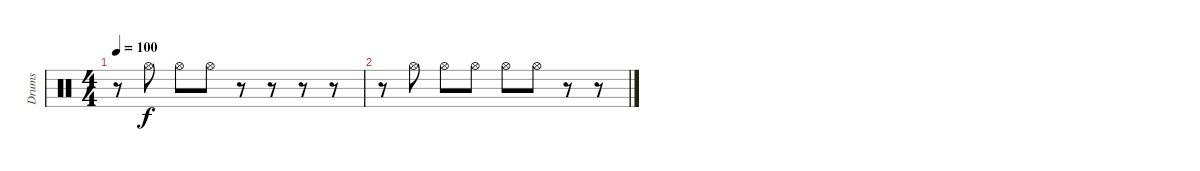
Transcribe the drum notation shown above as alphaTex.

\track ("Drums" "Drums") {instrument percussion}
\staff {score}
\articulation defaults
\ts (4 4)
\tempo 100
\clef neutral
\ks c
r.8{dy f} "Hi-Hat (open)".8 "Hi-Hat (open)".8 "Hi-Hat (open)".8 r.8 r.8 r.8 r.8 |
r.8 "Hi-Hat (open)".8 "Hi-Hat (open)".8 "Hi-Hat (open)".8 "Hi-Hat (open)".8 "Hi-Hat (open)".8 r.8 r.8
